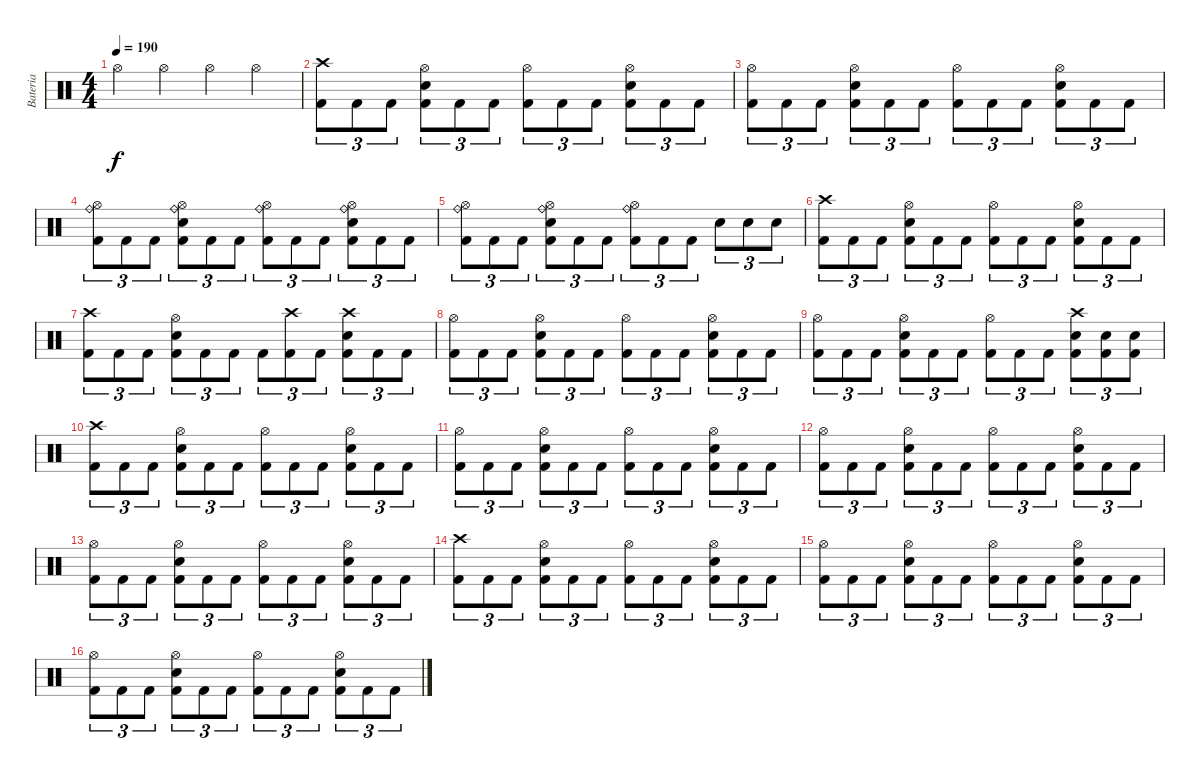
\track ("Bateria" "Bateria") {instrument percussion}
\staff {score}
\articulation defaults
\ts (4 4)
\tempo 190
\clef neutral
\ks c "Hi-Hat (open)".4{dy f} "Hi-Hat (open)".4 "Hi-Hat (open)".4 "Hi-Hat (open)".4
|
("Crash high (hit)" "Kick (hit) 2").8{tu (3 2)} "Kick (hit) 2".8{tu (3 2)} "Kick (hit) 2".8{tu (3 2)} ("Hi-Hat (open)" "Electric Snare (hit)" "Kick (hit) 2").8{tu (3 2)} "Kick (hit) 2".8{tu (3 2)} "Kick (hit) 2".8{tu (3 2)} ("Hi-Hat (open)" "Kick (hit) 2").8{tu (3 2)} "Kick (hit) 2".8{tu (3 2)} "Kick (hit) 2".8{tu (3 2)} ("Hi-Hat (open)" "Electric Snare (hit)" "Kick (hit) 2").8{tu (3 2)} "Kick (hit) 2".8{tu (3 2)} "Kick (hit) 2".8{tu (3 2)} |
("Hi-Hat (open)" "Kick (hit) 2").8{tu (3 2)} "Kick (hit) 2".8{tu (3 2)} "Kick (hit) 2".8{tu (3 2)} ("Hi-Hat (open)" "Electric Snare (hit)" "Kick (hit) 2").8{tu (3 2)} "Kick (hit) 2".8{tu (3 2)} "Kick (hit) 2".8{tu (3 2)} ("Hi-Hat (open)" "Kick (hit) 2").8{tu (3 2)} "Kick (hit) 2".8{tu (3 2)} "Kick (hit) 2".8{tu (3 2)} ("Hi-Hat (open)" "Electric Snare (hit)" "Kick (hit) 2").8{tu (3 2)} "Kick (hit) 2".8{tu (3 2)} "Kick (hit) 2".8{tu (3 2)} |
("Ride (bell)" "Hi-Hat (open)" "Kick (hit) 2").8{tu (3 2)} "Kick (hit) 2".8{tu (3 2)} "Kick (hit) 2".8{tu (3 2)} ("Ride (bell)" "Hi-Hat (open)" "Electric Snare (hit)" "Kick (hit) 2").8{tu (3 2)} "Kick (hit) 2".8{tu (3 2)} "Kick (hit) 2".8{tu (3 2)} ("Ride (bell)" "Hi-Hat (open)" "Kick (hit) 2").8{tu (3 2)} "Kick (hit) 2".8{tu (3 2)} "Kick (hit) 2".8{tu (3 2)} ("Ride (bell)" "Hi-Hat (open)" "Electric Snare (hit)" "Kick (hit) 2").8{tu (3 2)} "Kick (hit) 2".8{tu (3 2)} "Kick (hit) 2".8{tu (3 2)} |
("Ride (bell)" "Hi-Hat (open)" "Kick (hit) 2").8{tu (3 2)} "Kick (hit) 2".8{tu (3 2)} "Kick (hit) 2".8{tu (3 2)} ("Ride (bell)" "Hi-Hat (open)" "Electric Snare (hit)" "Kick (hit) 2").8{tu (3 2)} "Kick (hit) 2".8{tu (3 2)} "Kick (hit) 2".8{tu (3 2)} ("Ride (bell)" "Hi-Hat (open)" "Kick (hit) 2").8{tu (3 2)} "Kick (hit) 2".8{tu (3 2)} "Kick (hit) 2".8{tu (3 2)} "Electric Snare (hit)".8{tu (3 2)} "Electric Snare (hit)".8{tu (3 2)} "Electric Snare (hit)".8{tu (3 2)} |
("Crash high (hit)" "Kick (hit) 2").8{tu (3 2)} "Kick (hit) 2".8{tu (3 2)} "Kick (hit) 2".8{tu (3 2)} ("Hi-Hat (open)" "Electric Snare (hit)" "Kick (hit) 2").8{tu (3 2)} "Kick (hit) 2".8{tu (3 2)} "Kick (hit) 2".8{tu (3 2)} ("Hi-Hat (open)" "Kick (hit) 2").8{tu (3 2)} "Kick (hit) 2".8{tu (3 2)} "Kick (hit) 2".8{tu (3 2)} ("Hi-Hat (open)" "Electric Snare (hit)" "Kick (hit) 2").8{tu (3 2)} "Kick (hit) 2".8{tu (3 2)} "Kick (hit) 2".8{tu (3 2)} |
("Crash high (hit)" "Kick (hit) 2").8{tu (3 2)} "Kick (hit) 2".8{tu (3 2)} "Kick (hit) 2".8{tu (3 2)} ("Hi-Hat (open)" "Electric Snare (hit)" "Kick (hit) 2").8{tu (3 2)} "Kick (hit) 2".8{tu (3 2)} "Kick (hit) 2".8{tu (3 2)} "Kick (hit) 2".8{tu (3 2)} ("Crash high (hit)" "Kick (hit) 2").8{tu (3 2)} "Kick (hit) 2".8{tu (3 2)} ("Crash high (hit)" "Electric Snare (hit)" "Kick (hit) 2").8{tu (3 2)} "Kick (hit) 2".8{tu (3 2)} "Kick (hit) 2".8{tu (3 2)} |
("Hi-Hat (open)" "Kick (hit) 2").8{tu (3 2)} "Kick (hit) 2".8{tu (3 2)} "Kick (hit) 2".8{tu (3 2)} ("Hi-Hat (open)" "Electric Snare (hit)" "Kick (hit) 2").8{tu (3 2)} "Kick (hit) 2".8{tu (3 2)} "Kick (hit) 2".8{tu (3 2)} ("Hi-Hat (open)" "Kick (hit) 2").8{tu (3 2)} "Kick (hit) 2".8{tu (3 2)} "Kick (hit) 2".8{tu (3 2)} ("Hi-Hat (open)" "Electric Snare (hit)" "Kick (hit) 2").8{tu (3 2)} "Kick (hit) 2".8{tu (3 2)} "Kick (hit) 2".8{tu (3 2)} |
("Hi-Hat (open)" "Kick (hit) 2").8{tu (3 2)} "Kick (hit) 2".8{tu (3 2)} "Kick (hit) 2".8{tu (3 2)} ("Hi-Hat (open)" "Electric Snare (hit)" "Kick (hit) 2").8{tu (3 2)} "Kick (hit) 2".8{tu (3 2)} "Kick (hit) 2".8{tu (3 2)} ("Hi-Hat (open)" "Kick (hit) 2").8{tu (3 2)} "Kick (hit) 2".8{tu (3 2)} "Kick (hit) 2".8{tu (3 2)} ("Crash high (hit)" "Electric Snare (hit)" "Kick (hit) 2").8{tu (3 2)} ("Electric Snare (hit)" "Kick (hit) 2").8{tu (3 2)} ("Electric Snare (hit)" "Kick (hit) 2").8{tu (3 2)} |
("Crash high (hit)" "Kick (hit) 2").8{tu (3 2)} "Kick (hit) 2".8{tu (3 2)} "Kick (hit) 2".8{tu (3 2)} ("Hi-Hat (open)" "Electric Snare (hit)" "Kick (hit) 2").8{tu (3 2)} "Kick (hit) 2".8{tu (3 2)} "Kick (hit) 2".8{tu (3 2)} ("Hi-Hat (open)" "Kick (hit) 2").8{tu (3 2)} "Kick (hit) 2".8{tu (3 2)} "Kick (hit) 2".8{tu (3 2)} ("Hi-Hat (open)" "Electric Snare (hit)" "Kick (hit) 2").8{tu (3 2)} "Kick (hit) 2".8{tu (3 2)} "Kick (hit) 2".8{tu (3 2)} |
("Hi-Hat (open)" "Kick (hit) 2").8{tu (3 2)} "Kick (hit) 2".8{tu (3 2)} "Kick (hit) 2".8{tu (3 2)} ("Hi-Hat (open)" "Electric Snare (hit)" "Kick (hit) 2").8{tu (3 2)} "Kick (hit) 2".8{tu (3 2)} "Kick (hit) 2".8{tu (3 2)} ("Hi-Hat (open)" "Kick (hit) 2").8{tu (3 2)} "Kick (hit) 2".8{tu (3 2)} "Kick (hit) 2".8{tu (3 2)} ("Hi-Hat (open)" "Electric Snare (hit)" "Kick (hit) 2").8{tu (3 2)} "Kick (hit) 2".8{tu (3 2)} "Kick (hit) 2".8{tu (3 2)} |
("Hi-Hat (open)" "Kick (hit) 2").8{tu (3 2)} "Kick (hit) 2".8{tu (3 2)} "Kick (hit) 2".8{tu (3 2)} ("Hi-Hat (open)" "Electric Snare (hit)" "Kick (hit) 2").8{tu (3 2)} "Kick (hit) 2".8{tu (3 2)} "Kick (hit) 2".8{tu (3 2)} ("Hi-Hat (open)" "Kick (hit) 2").8{tu (3 2)} "Kick (hit) 2".8{tu (3 2)} "Kick (hit) 2".8{tu (3 2)} ("Hi-Hat (open)" "Electric Snare (hit)" "Kick (hit) 2").8{tu (3 2)} "Kick (hit) 2".8{tu (3 2)} "Kick (hit) 2".8{tu (3 2)} |
("Hi-Hat (open)" "Kick (hit) 2").8{tu (3 2)} "Kick (hit) 2".8{tu (3 2)} "Kick (hit) 2".8{tu (3 2)} ("Hi-Hat (open)" "Electric Snare (hit)" "Kick (hit) 2").8{tu (3 2)} "Kick (hit) 2".8{tu (3 2)} "Kick (hit) 2".8{tu (3 2)} ("Hi-Hat (open)" "Kick (hit) 2").8{tu (3 2)} "Kick (hit) 2".8{tu (3 2)} "Kick (hit) 2".8{tu (3 2)} ("Hi-Hat (open)" "Electric Snare (hit)" "Kick (hit) 2").8{tu (3 2)} "Kick (hit) 2".8{tu (3 2)} "Kick (hit) 2".8{tu (3 2)} |
("Crash high (hit)" "Kick (hit) 2").8{tu (3 2)} "Kick (hit) 2".8{tu (3 2)} "Kick (hit) 2".8{tu (3 2)} ("Hi-Hat (open)" "Electric Snare (hit)" "Kick (hit) 2").8{tu (3 2)} "Kick (hit) 2".8{tu (3 2)} "Kick (hit) 2".8{tu (3 2)} ("Hi-Hat (open)" "Kick (hit) 2").8{tu (3 2)} "Kick (hit) 2".8{tu (3 2)} "Kick (hit) 2".8{tu (3 2)} ("Hi-Hat (open)" "Electric Snare (hit)" "Kick (hit) 2").8{tu (3 2)} "Kick (hit) 2".8{tu (3 2)} "Kick (hit) 2".8{tu (3 2)} |
("Hi-Hat (open)" "Kick (hit) 2").8{tu (3 2)} "Kick (hit) 2".8{tu (3 2)} "Kick (hit) 2".8{tu (3 2)} ("Hi-Hat (open)" "Electric Snare (hit)" "Kick (hit) 2").8{tu (3 2)} "Kick (hit) 2".8{tu (3 2)} "Kick (hit) 2".8{tu (3 2)} ("Hi-Hat (open)" "Kick (hit) 2").8{tu (3 2)} "Kick (hit) 2".8{tu (3 2)} "Kick (hit) 2".8{tu (3 2)} ("Hi-Hat (open)" "Electric Snare (hit)" "Kick (hit) 2").8{tu (3 2)} "Kick (hit) 2".8{tu (3 2)} "Kick (hit) 2".8{tu (3 2)} |
("Hi-Hat (open)" "Kick (hit) 2").8{tu (3 2)} "Kick (hit) 2".8{tu (3 2)} "Kick (hit) 2".8{tu (3 2)} ("Hi-Hat (open)" "Electric Snare (hit)" "Kick (hit) 2").8{tu (3 2)} "Kick (hit) 2".8{tu (3 2)} "Kick (hit) 2".8{tu (3 2)} ("Hi-Hat (open)" "Kick (hit) 2").8{tu (3 2)} "Kick (hit) 2".8{tu (3 2)} "Kick (hit) 2".8{tu (3 2)} ("Hi-Hat (open)" "Electric Snare (hit)" "Kick (hit) 2").8{tu (3 2)} "Kick (hit) 2".8{tu (3 2)} "Kick (hit) 2".8{tu (3 2)}
